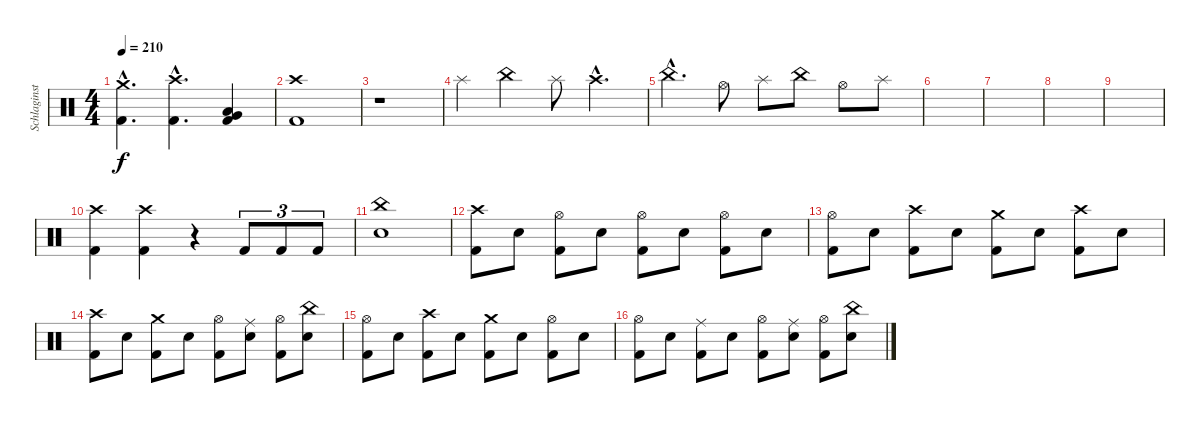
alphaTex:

\track ("Schlaginstrumente - Auswahl" "Schlaginst") {instrument percussion}
\staff {score}
\articulation defaults
\ts (4 4)
\tempo 210
\clef neutral
\ks c
("Crash medium (hit)"{hac} "Kick (hit) 2"{hac}).4{d dy f} ("Crash high (hit)"{hac} "Kick (hit) 2"{hac}).4{d} ("Kick (hit) 2" "Low Floor Tom (hit)" "Very Low Tom (hit)").4 |
("Crash high (hit)" "Kick (hit) 2").1 |
r.1 |
"Splash (hit)".4 "China (hit)".4 "Splash (hit)".8 "Crash high (hit)"{hac}.4{d} |
"China (hit)"{hac}.4{d} "Hi-Hat (open)".8 "Splash (hit)".8 "China (hit)".8 "Hi-Hat (open)".8 "Splash (hit)".8 |
|
|
|
|
("Crash high (hit)" "Kick (hit) 2").4 ("Crash high (hit)" "Kick (hit) 2").4 r.4 "Kick (hit) 2".8{tu (3 2)} "Kick (hit) 2".8{tu (3 2)} "Kick (hit) 2".8{tu (3 2)} |
("China (hit)" "Snare (hit) 2").1 |
("Crash high (hit)" "Kick (hit) 2").8 "Snare (hit) 2".8 ("Hi-Hat (open)" "Kick (hit) 2").8 "Snare (hit) 2".8 ("Hi-Hat (open)" "Kick (hit) 2").8 "Snare (hit) 2".8 ("Hi-Hat (open)" "Kick (hit) 2").8 "Snare (hit) 2".8 |
("Hi-Hat (open)" "Kick (hit) 2").8 "Snare (hit) 2".8 ("Crash high (hit)" "Kick (hit) 2").8 "Snare (hit) 2".8 ("Crash medium (hit)" "Kick (hit) 2").8 "Snare (hit) 2".8 ("Crash high (hit)" "Kick (hit) 2").8 "Snare (hit) 2".8 |
("Crash high (hit)" "Kick (hit) 2").8 "Snare (hit) 2".8 ("Crash medium (hit)" "Kick (hit) 2").8 "Snare (hit) 2".8 ("Hi-Hat (open)" "Kick (hit) 2").8 ("Ride (middle)" "Snare (hit) 2").8 ("Hi-Hat (open)" "Kick (hit) 2").8 ("China (hit)" "Snare (hit) 2").8 |
("Hi-Hat (open)" "Kick (hit) 2").8 "Snare (hit) 2".8 ("Crash high (hit)" "Kick (hit) 2").8 "Snare (hit) 2".8 ("Crash medium (hit)" "Kick (hit) 2").8 "Snare (hit) 2".8 ("Hi-Hat (open)" "Kick (hit) 2").8 "Snare (hit) 2".8 |
("Hi-Hat (open)" "Kick (hit) 2").8 "Snare (hit) 2".8 ("Ride (middle)" "Kick (hit) 2").8 "Snare (hit) 2".8 ("Hi-Hat (open)" "Kick (hit) 2").8 ("Ride (middle)" "Snare (hit) 2").8 ("Hi-Hat (open)" "Kick (hit) 2").8 ("China (hit)" "Snare (hit) 2").8
